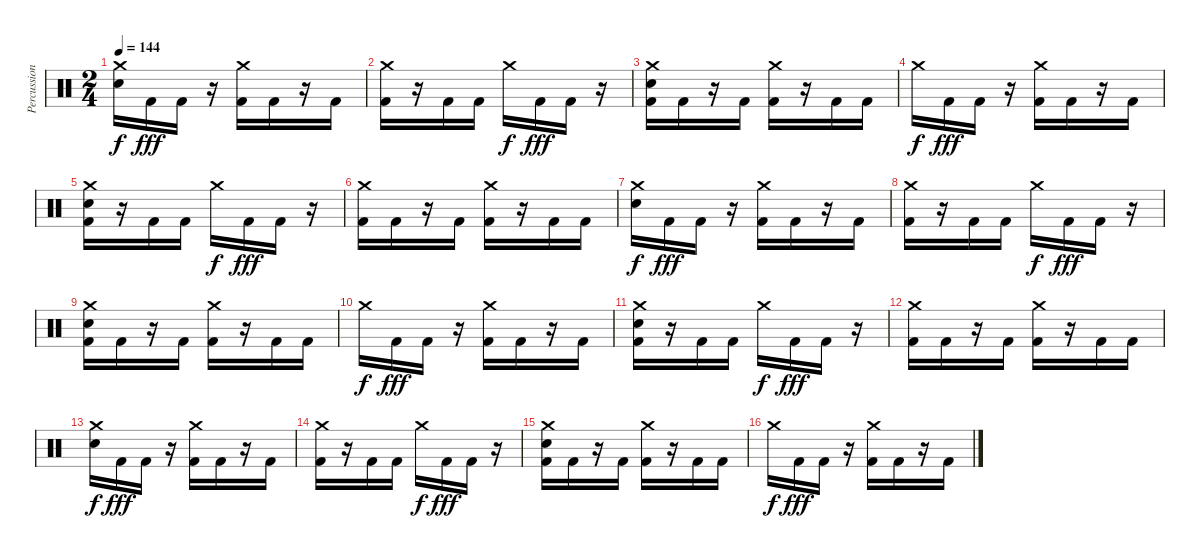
\track ("Percussion" "Percussion") {instrument percussion}
\staff {score}
\articulation defaults
\ts (2 4)
\tempo 144
\clef neutral
\ks c
("Crash medium (hit)" "Electric Snare (hit)").16{dy f} "Kick (hit) 2".16{dy fff} "Kick (hit) 2".16 r.16 ("Crash medium (hit)" "Kick (hit) 2").16 "Kick (hit) 2".16 r.16 "Kick (hit) 2".16 |
("Crash medium (hit)" "Kick (hit) 2").16 r.16 "Kick (hit) 2".16 "Kick (hit) 2".16 "Crash medium (hit)".16{dy f} "Kick (hit) 2".16{dy fff} "Kick (hit) 2".16 r.16 |
("Crash medium (hit)" "Electric Snare (hit)" "Kick (hit) 2").16 "Kick (hit) 2".16 r.16 "Kick (hit) 2".16 ("Crash medium (hit)" "Kick (hit) 2").16 r.16 "Kick (hit) 2".16 "Kick (hit) 2".16 |
"Crash medium (hit)".16{dy f} "Kick (hit) 2".16{dy fff} "Kick (hit) 2".16 r.16 ("Crash medium (hit)" "Kick (hit) 2").16 "Kick (hit) 2".16 r.16 "Kick (hit) 2".16 |
("Crash medium (hit)" "Electric Snare (hit)" "Kick (hit) 2").16 r.16 "Kick (hit) 2".16 "Kick (hit) 2".16 "Crash medium (hit)".16{dy f} "Kick (hit) 2".16{dy fff} "Kick (hit) 2".16 r.16 |
("Crash medium (hit)" "Kick (hit) 2").16 "Kick (hit) 2".16 r.16 "Kick (hit) 2".16 ("Crash medium (hit)" "Kick (hit) 2").16 r.16 "Kick (hit) 2".16 "Kick (hit) 2".16 |
("Crash medium (hit)" "Electric Snare (hit)").16{dy f} "Kick (hit) 2".16{dy fff} "Kick (hit) 2".16 r.16 ("Crash medium (hit)" "Kick (hit) 2").16 "Kick (hit) 2".16 r.16 "Kick (hit) 2".16 |
("Crash medium (hit)" "Kick (hit) 2").16 r.16 "Kick (hit) 2".16 "Kick (hit) 2".16 "Crash medium (hit)".16{dy f} "Kick (hit) 2".16{dy fff} "Kick (hit) 2".16 r.16 |
("Crash medium (hit)" "Electric Snare (hit)" "Kick (hit) 2").16 "Kick (hit) 2".16 r.16 "Kick (hit) 2".16 ("Crash medium (hit)" "Kick (hit) 2").16 r.16 "Kick (hit) 2".16 "Kick (hit) 2".16 |
"Crash medium (hit)".16{dy f} "Kick (hit) 2".16{dy fff} "Kick (hit) 2".16 r.16 ("Crash medium (hit)" "Kick (hit) 2").16 "Kick (hit) 2".16 r.16 "Kick (hit) 2".16 |
("Crash medium (hit)" "Electric Snare (hit)" "Kick (hit) 2").16 r.16 "Kick (hit) 2".16 "Kick (hit) 2".16 "Crash medium (hit)".16{dy f} "Kick (hit) 2".16{dy fff} "Kick (hit) 2".16 r.16 |
("Crash medium (hit)" "Kick (hit) 2").16 "Kick (hit) 2".16 r.16 "Kick (hit) 2".16 ("Crash medium (hit)" "Kick (hit) 2").16 r.16 "Kick (hit) 2".16 "Kick (hit) 2".16 |
("Crash medium (hit)" "Electric Snare (hit)").16{dy f} "Kick (hit) 2".16{dy fff} "Kick (hit) 2".16 r.16 ("Crash medium (hit)" "Kick (hit) 2").16 "Kick (hit) 2".16 r.16 "Kick (hit) 2".16 |
("Crash medium (hit)" "Kick (hit) 2").16 r.16 "Kick (hit) 2".16 "Kick (hit) 2".16 "Crash medium (hit)".16{dy f} "Kick (hit) 2".16{dy fff} "Kick (hit) 2".16 r.16 |
("Crash medium (hit)" "Electric Snare (hit)" "Kick (hit) 2").16 "Kick (hit) 2".16 r.16 "Kick (hit) 2".16 ("Crash medium (hit)" "Kick (hit) 2").16 r.16 "Kick (hit) 2".16 "Kick (hit) 2".16 |
"Crash medium (hit)".16{dy f} "Kick (hit) 2".16{dy fff} "Kick (hit) 2".16 r.16 ("Crash medium (hit)" "Kick (hit) 2").16 "Kick (hit) 2".16 r.16 "Kick (hit) 2".16
